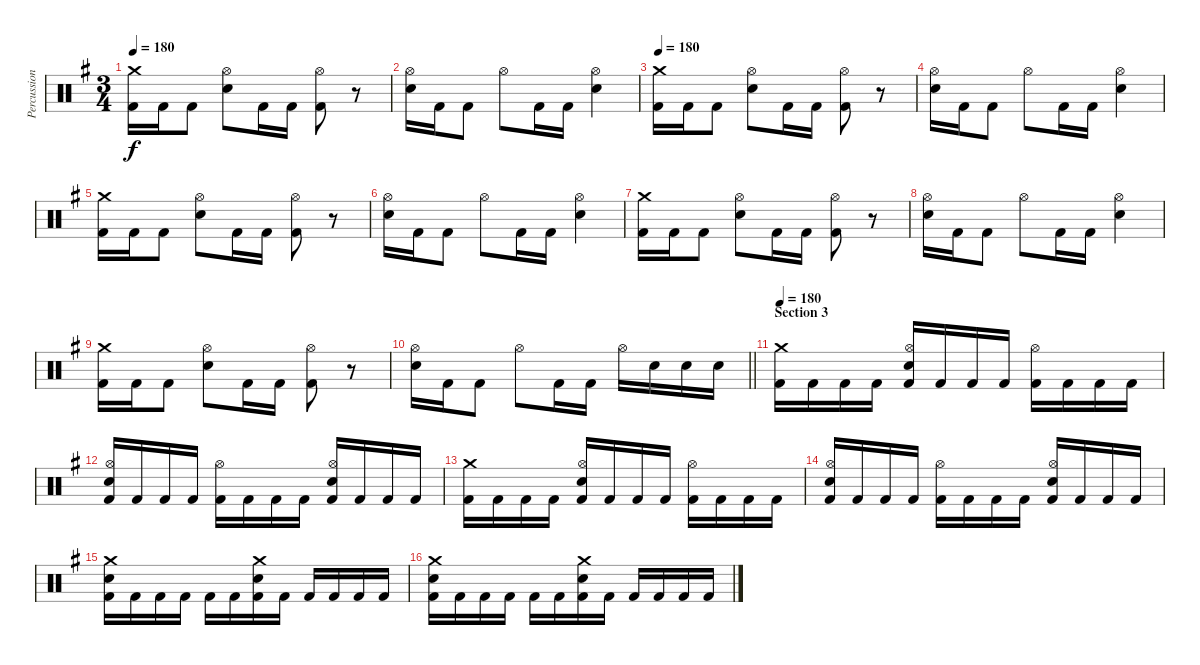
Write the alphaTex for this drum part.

\track ("Percussion" "Percussion") {instrument percussion}
\staff {score}
\articulation defaults
\ts (3 4)
\tempo 180
\clef neutral
\ks eminor
("Crash medium (hit)" "Kick (hit) 2").16{dy f} "Kick (hit) 2".16 "Kick (hit) 2".8 ("Hi-Hat (open)" "Electric Snare (hit)").8 "Kick (hit) 2".16 "Kick (hit) 2".16 ("Hi-Hat (open)" "Kick (hit) 2").8 r.8 |
("Hi-Hat (open)" "Electric Snare (hit)").16 "Kick (hit) 2".16 "Kick (hit) 2".8 "Hi-Hat (open)".8 "Kick (hit) 2".16 "Kick (hit) 2".16 ("Hi-Hat (open)" "Electric Snare (hit)").4 |
\tempo 180
("Crash medium (hit)" "Kick (hit) 2").16 "Kick (hit) 2".16 "Kick (hit) 2".8 ("Hi-Hat (open)" "Electric Snare (hit)").8 "Kick (hit) 2".16 "Kick (hit) 2".16 ("Hi-Hat (open)" "Kick (hit) 2").8 r.8 |
("Hi-Hat (open)" "Electric Snare (hit)").16 "Kick (hit) 2".16 "Kick (hit) 2".8 "Hi-Hat (open)".8 "Kick (hit) 2".16 "Kick (hit) 2".16 ("Hi-Hat (open)" "Electric Snare (hit)").4 |
("Crash medium (hit)" "Kick (hit) 2").16 "Kick (hit) 2".16 "Kick (hit) 2".8 ("Hi-Hat (open)" "Electric Snare (hit)").8 "Kick (hit) 2".16 "Kick (hit) 2".16 ("Hi-Hat (open)" "Kick (hit) 2").8 r.8 |
("Hi-Hat (open)" "Electric Snare (hit)").16 "Kick (hit) 2".16 "Kick (hit) 2".8 "Hi-Hat (open)".8 "Kick (hit) 2".16 "Kick (hit) 2".16 ("Hi-Hat (open)" "Electric Snare (hit)").4 |
("Crash medium (hit)" "Kick (hit) 2").16 "Kick (hit) 2".16 "Kick (hit) 2".8 ("Hi-Hat (open)" "Electric Snare (hit)").8 "Kick (hit) 2".16 "Kick (hit) 2".16 ("Hi-Hat (open)" "Kick (hit) 2").8 r.8 |
("Hi-Hat (open)" "Electric Snare (hit)").16 "Kick (hit) 2".16 "Kick (hit) 2".8 "Hi-Hat (open)".8 "Kick (hit) 2".16 "Kick (hit) 2".16 ("Hi-Hat (open)" "Electric Snare (hit)").4 |
("Crash medium (hit)" "Kick (hit) 2").16 "Kick (hit) 2".16 "Kick (hit) 2".8 ("Hi-Hat (open)" "Electric Snare (hit)").8 "Kick (hit) 2".16 "Kick (hit) 2".16 ("Hi-Hat (open)" "Kick (hit) 2").8 r.8 |
\barLineRight lightlight
("Hi-Hat (open)" "Electric Snare (hit)").16 "Kick (hit) 2".16 "Kick (hit) 2".8 "Hi-Hat (open)".8 "Kick (hit) 2".16 "Kick (hit) 2".16 "Hi-Hat (open)".16 "Electric Snare (hit)".16 "Electric Snare (hit)".16 "Electric Snare (hit)".16 |
\section ("" "Section 3")
\tempo 180
("Crash medium (hit)" "Kick (hit) 2").16 "Kick (hit) 2".16 "Kick (hit) 2".16 "Kick (hit) 2".16 ("Hi-Hat (open)" "Electric Snare (hit)" "Kick (hit) 2").16 "Kick (hit) 2".16 "Kick (hit) 2".16 "Kick (hit) 2".16 ("Hi-Hat (open)" "Kick (hit) 2").16 "Kick (hit) 2".16 "Kick (hit) 2".16 "Kick (hit) 2".16 |
("Hi-Hat (open)" "Electric Snare (hit)" "Kick (hit) 2").16 "Kick (hit) 2".16 "Kick (hit) 2".16 "Kick (hit) 2".16 ("Hi-Hat (open)" "Kick (hit) 2").16 "Kick (hit) 2".16 "Kick (hit) 2".16 "Kick (hit) 2".16 ("Hi-Hat (open)" "Electric Snare (hit)" "Kick (hit) 2").16 "Kick (hit) 2".16 "Kick (hit) 2".16 "Kick (hit) 2".16 |
("Crash medium (hit)" "Kick (hit) 2").16 "Kick (hit) 2".16 "Kick (hit) 2".16 "Kick (hit) 2".16 ("Hi-Hat (open)" "Electric Snare (hit)" "Kick (hit) 2").16 "Kick (hit) 2".16 "Kick (hit) 2".16 "Kick (hit) 2".16 ("Hi-Hat (open)" "Kick (hit) 2").16 "Kick (hit) 2".16 "Kick (hit) 2".16 "Kick (hit) 2".16 |
("Hi-Hat (open)" "Electric Snare (hit)" "Kick (hit) 2").16 "Kick (hit) 2".16 "Kick (hit) 2".16 "Kick (hit) 2".16 ("Hi-Hat (open)" "Kick (hit) 2").16 "Kick (hit) 2".16 "Kick (hit) 2".16 "Kick (hit) 2".16 ("Hi-Hat (open)" "Electric Snare (hit)" "Kick (hit) 2").16 "Kick (hit) 2".16 "Kick (hit) 2".16 "Kick (hit) 2".16 |
("Crash medium (hit)" "Electric Snare (hit)" "Kick (hit) 2").16 "Kick (hit) 2".16 "Kick (hit) 2".16 "Kick (hit) 2".16 "Kick (hit) 2".16 "Kick (hit) 2".16 ("Crash medium (hit)" "Electric Snare (hit)" "Kick (hit) 2").16 "Kick (hit) 2".16 "Kick (hit) 2".16 "Kick (hit) 2".16 "Kick (hit) 2".16 "Kick (hit) 2".16 |
("Crash medium (hit)" "Electric Snare (hit)" "Kick (hit) 2").16 "Kick (hit) 2".16 "Kick (hit) 2".16 "Kick (hit) 2".16 "Kick (hit) 2".16 "Kick (hit) 2".16 ("Crash medium (hit)" "Electric Snare (hit)" "Kick (hit) 2").16 "Kick (hit) 2".16 "Kick (hit) 2".16 "Kick (hit) 2".16 "Kick (hit) 2".16 "Kick (hit) 2".16
